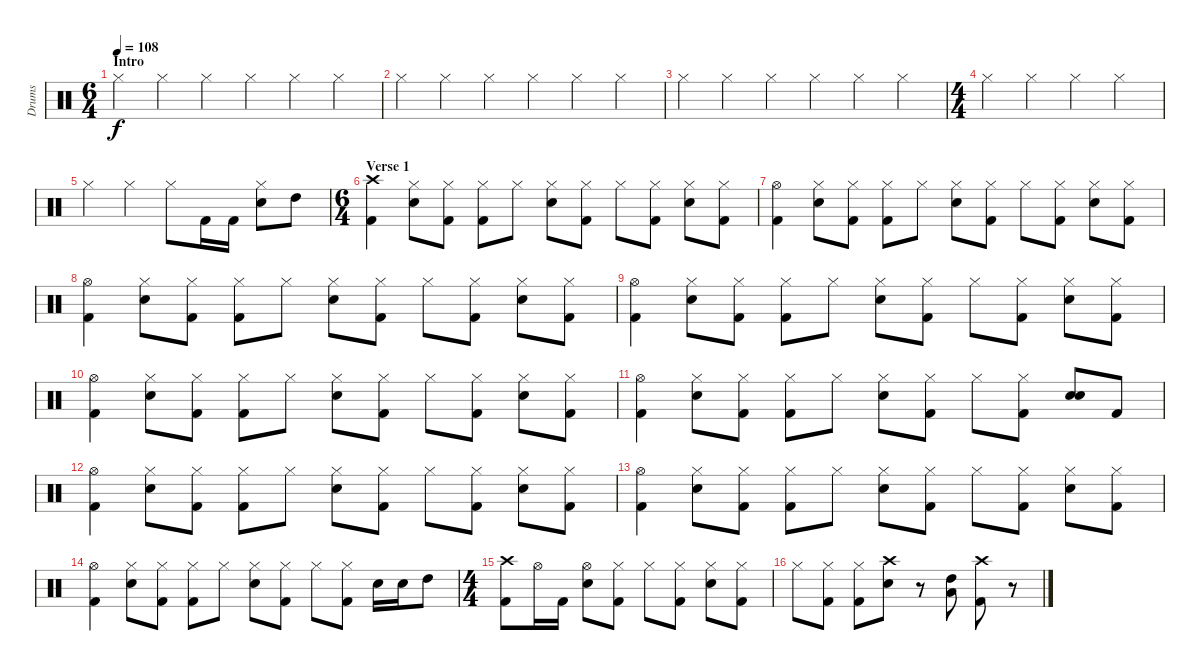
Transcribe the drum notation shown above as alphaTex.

\track ("Drums" "Drums") {instrument percussion}
\staff {score}
\articulation defaults
\ts (6 4)
\section ("" "Intro")
\tempo 108
\clef neutral
\ks c "Hi-Hat (closed)".4{dy f} "Hi-Hat (closed)".4 "Hi-Hat (closed)".4 "Hi-Hat (closed)".4 "Hi-Hat (closed)".4 "Hi-Hat (closed)".4
|
"Hi-Hat (closed)".4 "Hi-Hat (closed)".4 "Hi-Hat (closed)".4 "Hi-Hat (closed)".4 "Hi-Hat (closed)".4 "Hi-Hat (closed)".4 |
"Hi-Hat (closed)".4 "Hi-Hat (closed)".4 "Hi-Hat (closed)".4 "Hi-Hat (closed)".4 "Hi-Hat (closed)".4 "Hi-Hat (closed)".4 |
\ts (4 4)
"Hi-Hat (closed)".4 "Hi-Hat (closed)".4 "Hi-Hat (closed)".4 "Hi-Hat (closed)".4 |
"Hi-Hat (closed)".4 "Hi-Hat (closed)".4 "Hi-Hat (closed)".8 "Kick (hit) 2".16 "Kick (hit) 2".16 ("Hi-Hat (closed)" "Electric Snare (hit)").8 "High Tom (hit)".8 |
\ts (6 4)
\section ("" "Verse 1")
("Crash high (hit)" "Kick (hit) 2").4 ("Hi-Hat (closed)" "Electric Snare (hit)").8 ("Hi-Hat (closed)" "Kick (hit) 2").8 ("Hi-Hat (closed)" "Kick (hit) 2").8 "Hi-Hat (closed)".8 ("Hi-Hat (closed)" "Electric Snare (hit)").8 ("Hi-Hat (closed)" "Kick (hit) 2").8 "Hi-Hat (closed)".8 ("Hi-Hat (closed)" "Kick (hit) 2").8 ("Hi-Hat (closed)" "Electric Snare (hit)").8 ("Hi-Hat (closed)" "Kick (hit) 2").8 |
("Hi-Hat (open)" "Kick (hit) 2").4 ("Hi-Hat (closed)" "Electric Snare (hit)").8 ("Hi-Hat (closed)" "Kick (hit) 2").8 ("Hi-Hat (closed)" "Kick (hit) 2").8 "Hi-Hat (closed)".8 ("Hi-Hat (closed)" "Electric Snare (hit)").8 ("Hi-Hat (closed)" "Kick (hit) 2").8 "Hi-Hat (closed)".8 ("Hi-Hat (closed)" "Kick (hit) 2").8 ("Hi-Hat (closed)" "Electric Snare (hit)").8 ("Hi-Hat (closed)" "Kick (hit) 2").8 |
("Hi-Hat (open)" "Kick (hit) 2").4 ("Hi-Hat (closed)" "Electric Snare (hit)").8 ("Hi-Hat (closed)" "Kick (hit) 2").8 ("Hi-Hat (closed)" "Kick (hit) 2").8 "Hi-Hat (closed)".8 ("Hi-Hat (closed)" "Electric Snare (hit)").8 ("Hi-Hat (closed)" "Kick (hit) 2").8 "Hi-Hat (closed)".8 ("Hi-Hat (closed)" "Kick (hit) 2").8 ("Hi-Hat (closed)" "Electric Snare (hit)").8 ("Hi-Hat (closed)" "Kick (hit) 2").8 |
("Hi-Hat (open)" "Kick (hit) 2").4 ("Hi-Hat (closed)" "Electric Snare (hit)").8 ("Hi-Hat (closed)" "Kick (hit) 2").8 ("Hi-Hat (closed)" "Kick (hit) 2").8 "Hi-Hat (closed)".8 ("Hi-Hat (closed)" "Electric Snare (hit)").8 ("Hi-Hat (closed)" "Kick (hit) 2").8 "Hi-Hat (closed)".8 ("Hi-Hat (closed)" "Kick (hit) 2").8 ("Hi-Hat (closed)" "Electric Snare (hit)").8 ("Hi-Hat (closed)" "Kick (hit) 2").8 |
("Hi-Hat (open)" "Kick (hit) 2").4 ("Hi-Hat (closed)" "Electric Snare (hit)").8 ("Hi-Hat (closed)" "Kick (hit) 2").8 ("Hi-Hat (closed)" "Kick (hit) 2").8 "Hi-Hat (closed)".8 ("Hi-Hat (closed)" "Electric Snare (hit)").8 ("Hi-Hat (closed)" "Kick (hit) 2").8 "Hi-Hat (closed)".8 ("Hi-Hat (closed)" "Kick (hit) 2").8 ("Hi-Hat (closed)" "Electric Snare (hit)").8 ("Hi-Hat (closed)" "Kick (hit) 2").8 |
("Hi-Hat (open)" "Kick (hit) 2").4 ("Hi-Hat (closed)" "Electric Snare (hit)").8 ("Hi-Hat (closed)" "Kick (hit) 2").8 ("Hi-Hat (closed)" "Kick (hit) 2").8 "Hi-Hat (closed)".8 ("Hi-Hat (closed)" "Electric Snare (hit)").8 ("Hi-Hat (closed)" "Kick (hit) 2").8 "Hi-Hat (closed)".8 ("Hi-Hat (closed)" "Kick (hit) 2").8 ("Electric Snare (hit)" "Electric Snare (hit)").8 "Kick (hit) 2".8 |
("Hi-Hat (open)" "Kick (hit) 2").4 ("Hi-Hat (closed)" "Electric Snare (hit)").8 ("Hi-Hat (closed)" "Kick (hit) 2").8 ("Hi-Hat (closed)" "Kick (hit) 2").8 "Hi-Hat (closed)".8 ("Hi-Hat (closed)" "Electric Snare (hit)").8 ("Hi-Hat (closed)" "Kick (hit) 2").8 "Hi-Hat (closed)".8 ("Hi-Hat (closed)" "Kick (hit) 2").8 ("Hi-Hat (closed)" "Electric Snare (hit)").8 ("Hi-Hat (closed)" "Kick (hit) 2").8 |
("Hi-Hat (open)" "Kick (hit) 2").4 ("Hi-Hat (closed)" "Electric Snare (hit)").8 ("Hi-Hat (closed)" "Kick (hit) 2").8 ("Hi-Hat (closed)" "Kick (hit) 2").8 "Hi-Hat (closed)".8 ("Hi-Hat (closed)" "Electric Snare (hit)").8 ("Hi-Hat (closed)" "Kick (hit) 2").8 "Hi-Hat (closed)".8 ("Hi-Hat (closed)" "Kick (hit) 2").8 ("Hi-Hat (closed)" "Electric Snare (hit)").8 ("Hi-Hat (closed)" "Kick (hit) 2").8 |
("Hi-Hat (open)" "Kick (hit) 2").4 ("Hi-Hat (closed)" "Electric Snare (hit)").8 ("Hi-Hat (closed)" "Kick (hit) 2").8 ("Hi-Hat (closed)" "Kick (hit) 2").8 "Hi-Hat (closed)".8 ("Hi-Hat (closed)" "Electric Snare (hit)").8 ("Hi-Hat (closed)" "Kick (hit) 2").8 "Hi-Hat (closed)".8 ("Hi-Hat (closed)" "Kick (hit) 2").8 "Electric Snare (hit)".16 "Electric Snare (hit)".16 "High Tom (hit)".8 |
\ts (4 4)
("Crash high (hit)" "Kick (hit) 2").8 "Hi-Hat (open)".16 "Kick (hit) 2".16 ("Hi-Hat (open)" "Electric Snare (hit)").8 ("Hi-Hat (closed)" "Kick (hit) 2").8 "Hi-Hat (closed)".8 ("Hi-Hat (closed)" "Kick (hit) 2").8 ("Hi-Hat (closed)" "Electric Snare (hit)").8 ("Hi-Hat (closed)" "Kick (hit) 2").8 |
"Hi-Hat (closed)".8 ("Hi-Hat (closed)" "Kick (hit) 2").8 ("Hi-Hat (closed)" "Kick (hit) 2").8 ("Crash high (hit)" "Electric Snare (hit)").8 r.8 ("High Tom (hit)" "Low Tom (hit)").8 ("Crash high (hit)" "Kick (hit) 2").8 r.8
